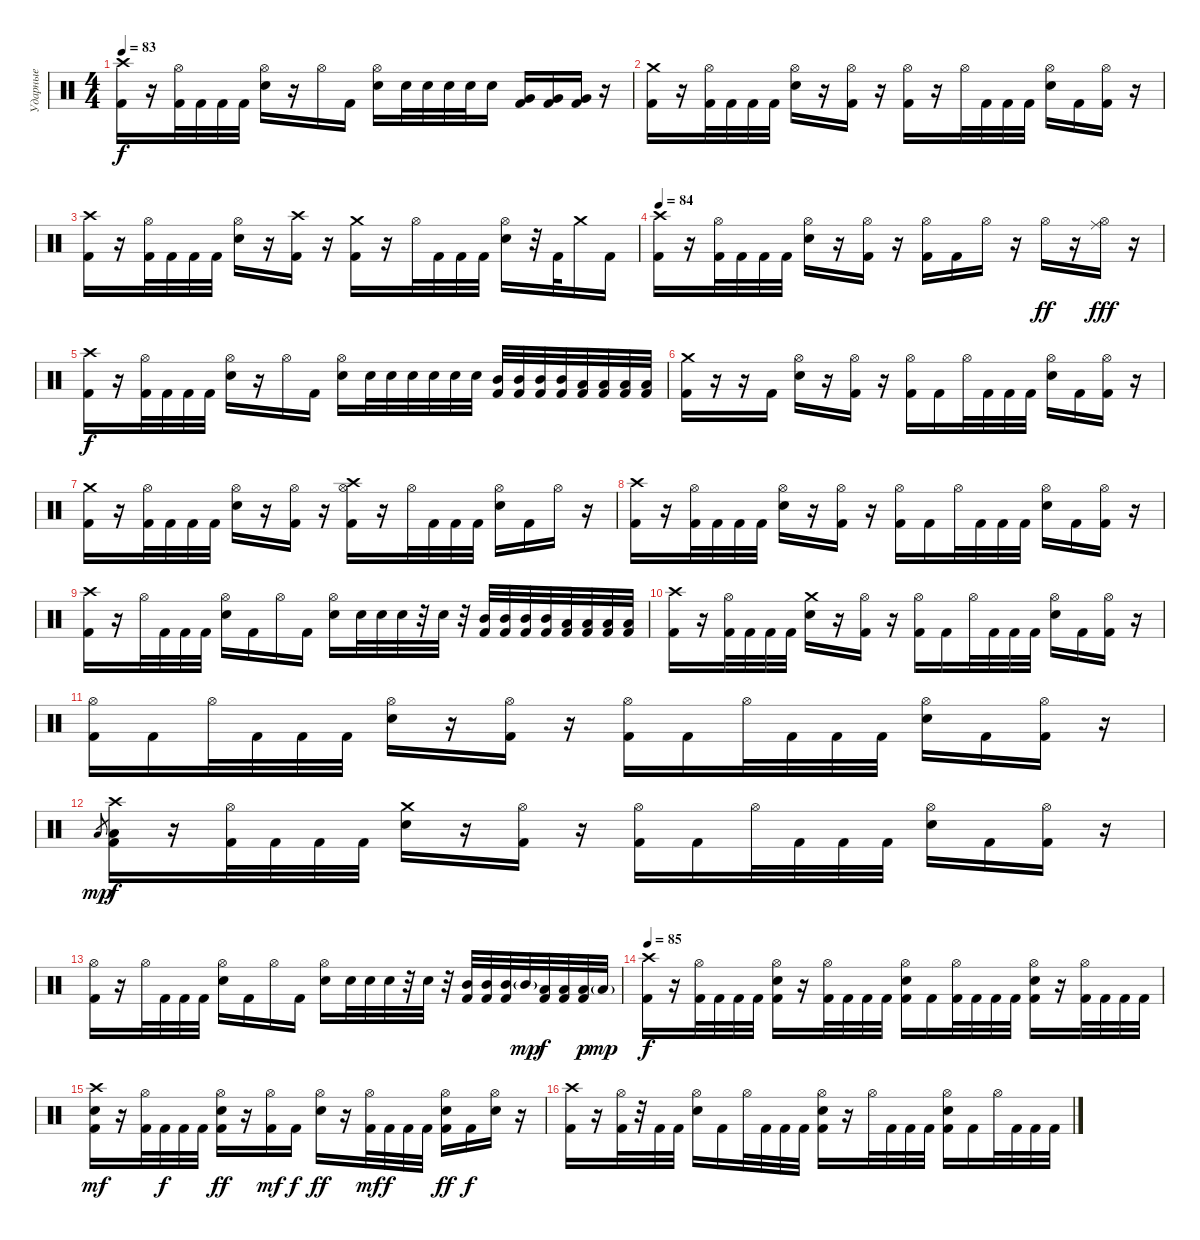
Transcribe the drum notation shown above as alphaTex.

\track ("Ударные" "Ударные") {instrument percussion}
\staff {score}
\articulation defaults
\ts (4 4)
\tempo 83
\clef neutral
\ks c
("Crash high (hit)" "Kick (hit) 2").16{dy f} r.16 ("Hi-Hat (open)" "Kick (hit) 2").32 "Kick (hit) 2".32 "Kick (hit) 2".32 "Kick (hit) 2".32 ("Hi-Hat (open)" "Electric Snare (hit)").16 r.16 "Hi-Hat (open)".16 "Kick (hit) 2".16 ("Hi-Hat (open)" "Electric Snare (hit)").16 "Electric Snare (hit)".32 "Electric Snare (hit)".32 "Electric Snare (hit)".32 "Electric Snare (hit)".32 "Electric Snare (hit)".16 ("Very Low Tom (hit)" "Kick (hit) 2").16 ("Very Low Tom (hit)" "Kick (hit) 2").16 ("Very Low Tom (hit)" "Kick (hit) 2").16 r.16 |
("Crash medium (hit)" "Kick (hit) 2").16 r.16 ("Hi-Hat (open)" "Kick (hit) 2").32 "Kick (hit) 2".32 "Kick (hit) 2".32 "Kick (hit) 2".32 ("Hi-Hat (open)" "Electric Snare (hit)").16 r.16 ("Hi-Hat (open)" "Kick (hit) 2").16 r.16 ("Hi-Hat (open)" "Kick (hit) 2").16 r.16 "Hi-Hat (open)".32 "Kick (hit) 2".32 "Kick (hit) 2".32 "Kick (hit) 2".32 ("Hi-Hat (open)" "Electric Snare (hit)").16 "Kick (hit) 2".16 ("Hi-Hat (open)" "Kick (hit) 2").16 r.16 |
("Crash high (hit)" "Kick (hit) 2").16 r.16 ("Hi-Hat (open)" "Kick (hit) 2").32 "Kick (hit) 2".32 "Kick (hit) 2".32 "Kick (hit) 2".32 ("Hi-Hat (open)" "Electric Snare (hit)").16 r.16 ("Crash high (hit)" "Kick (hit) 2").16 r.16 ("Crash medium (hit)" "Kick (hit) 2").16 r.16 "Hi-Hat (open)".32 "Kick (hit) 2".32 "Kick (hit) 2".32 "Kick (hit) 2".32 ("Hi-Hat (open)" "Electric Snare (hit)").16 r.32 "Kick (hit) 2".32 "Crash medium (hit)".16 "Kick (hit) 2".16 |
\tempo 84
("Crash high (hit)" "Kick (hit) 2").16 r.16 ("Hi-Hat (open)" "Kick (hit) 2").32 "Kick (hit) 2".32 "Kick (hit) 2".32 "Kick (hit) 2".32 ("Hi-Hat (open)" "Electric Snare (hit)").16 r.16 ("Hi-Hat (open)" "Kick (hit) 2").16 r.16 ("Hi-Hat (open)" "Kick (hit) 2").16 "Kick (hit) 2".16 "Hi-Hat (open)".16 r.16 "Hi-Hat (open)".16{dy ff} r.16 ("Hi-Hat (open)" "Ride (middle)").16{dy fff} r.16 |
("Crash high (hit)" "Kick (hit) 2").16{dy f} r.16 ("Hi-Hat (open)" "Kick (hit) 2").32 "Kick (hit) 2".32 "Kick (hit) 2".32 "Kick (hit) 2".32 ("Hi-Hat (open)" "Electric Snare (hit)").16 r.16 "Hi-Hat (open)".16 "Kick (hit) 2".16 ("Hi-Hat (open)" "Electric Snare (hit)").16 "Electric Snare (hit)".32 "Electric Snare (hit)".32 "Electric Snare (hit)".32 "Electric Snare (hit)".32 "Electric Snare (hit)".32 "Electric Snare (hit)".32 ("Mid Tom (hit)" "Kick (hit) 2").32 ("Mid Tom (hit)" "Kick (hit) 2").32 ("Mid Tom (hit)" "Kick (hit) 2").32 ("Mid Tom (hit)" "Kick (hit) 2").32 ("Low Tom (hit)" "Kick (hit) 2").32 ("Low Tom (hit)" "Kick (hit) 2").32 ("Low Tom (hit)" "Kick (hit) 2").32 ("Low Tom (hit)" "Kick (hit) 2").32 |
("Crash medium (hit)" "Kick (hit) 2").16 r.16 r.16 "Kick (hit) 2".16 ("Hi-Hat (open)" "Electric Snare (hit)").16 r.16 ("Hi-Hat (open)" "Kick (hit) 2").16 r.16 ("Hi-Hat (open)" "Kick (hit) 2").16 "Kick (hit) 2".16 "Hi-Hat (open)".32 "Kick (hit) 2".32 "Kick (hit) 2".32 "Kick (hit) 2".32 ("Hi-Hat (open)" "Electric Snare (hit)").16 "Kick (hit) 2".16 ("Hi-Hat (open)" "Kick (hit) 2").16 r.16 |
("Crash medium (hit)" "Kick (hit) 2").16 r.16 ("Hi-Hat (open)" "Kick (hit) 2").32 "Kick (hit) 2".32 "Kick (hit) 2".32 "Kick (hit) 2".32 ("Hi-Hat (open)" "Electric Snare (hit)").16 r.16 ("Hi-Hat (open)" "Kick (hit) 2").16 r.16 ("Hi-Hat (open)" "Crash high (hit)" "Kick (hit) 2").16 r.16 "Hi-Hat (open)".32 "Kick (hit) 2".32 "Kick (hit) 2".32 "Kick (hit) 2".32 ("Hi-Hat (open)" "Electric Snare (hit)").16 "Kick (hit) 2".16 "Hi-Hat (open)".16 r.16 |
("Crash high (hit)" "Kick (hit) 2").16 r.16 ("Hi-Hat (open)" "Kick (hit) 2").32 "Kick (hit) 2".32 "Kick (hit) 2".32 "Kick (hit) 2".32 ("Hi-Hat (open)" "Electric Snare (hit)").16 r.16 ("Hi-Hat (open)" "Kick (hit) 2").16 r.16 ("Hi-Hat (open)" "Kick (hit) 2").16 "Kick (hit) 2".16 "Hi-Hat (open)".32 "Kick (hit) 2".32 "Kick (hit) 2".32 "Kick (hit) 2".32 ("Hi-Hat (open)" "Electric Snare (hit)").16 "Kick (hit) 2".16 ("Hi-Hat (open)" "Kick (hit) 2").16 r.16 |
("Crash high (hit)" "Kick (hit) 2").16 r.16 "Hi-Hat (open)".32 "Kick (hit) 2".32 "Kick (hit) 2".32 "Kick (hit) 2".32 ("Hi-Hat (open)" "Electric Snare (hit)").16 "Kick (hit) 2".16 "Hi-Hat (open)".16 "Kick (hit) 2".16 ("Hi-Hat (open)" "Electric Snare (hit)").16 "Electric Snare (hit)".32 "Electric Snare (hit)".32 "Electric Snare (hit)".32 r.32 "Electric Snare (hit)".32 r.32 ("Mid Tom (hit)" "Kick (hit) 2").32 ("Mid Tom (hit)" "Kick (hit) 2").32 ("Mid Tom (hit)" "Kick (hit) 2").32 ("Mid Tom (hit)" "Kick (hit) 2").32 ("Low Tom (hit)" "Kick (hit) 2").32 ("Low Tom (hit)" "Kick (hit) 2").32 ("Low Tom (hit)" "Kick (hit) 2").32 ("Low Tom (hit)" "Kick (hit) 2").32 |
("Crash high (hit)" "Kick (hit) 2").16 r.16 ("Hi-Hat (open)" "Kick (hit) 2").32 "Kick (hit) 2".32 "Kick (hit) 2".32 "Kick (hit) 2".32 ("Crash medium (hit)" "Electric Snare (hit)").16 r.16 ("Hi-Hat (open)" "Kick (hit) 2").16 r.16 ("Hi-Hat (open)" "Kick (hit) 2").16 "Kick (hit) 2".16 "Hi-Hat (open)".32 "Kick (hit) 2".32 "Kick (hit) 2".32 "Kick (hit) 2".32 ("Hi-Hat (open)" "Electric Snare (hit)").16 "Kick (hit) 2".16 ("Hi-Hat (open)" "Kick (hit) 2").16 r.16 |
("Hi-Hat (open)" "Kick (hit) 2").16 "Kick (hit) 2".16 "Hi-Hat (open)".32 "Kick (hit) 2".32 "Kick (hit) 2".32 "Kick (hit) 2".32 ("Hi-Hat (open)" "Electric Snare (hit)").16 r.16 ("Hi-Hat (open)" "Kick (hit) 2").16 r.16 ("Hi-Hat (open)" "Kick (hit) 2").16 "Kick (hit) 2".16 "Hi-Hat (open)".32 "Kick (hit) 2".32 "Kick (hit) 2".32 "Kick (hit) 2".32 ("Hi-Hat (open)" "Electric Snare (hit)").16 "Kick (hit) 2".16 ("Hi-Hat (open)" "Kick (hit) 2").16 r.16 |
"Low Floor Tom (hit)".8{gr dy mp} ("Crash high (hit)" "Low Floor Tom (hit)" "Kick (hit) 2").16{dy f} r.16 ("Hi-Hat (open)" "Kick (hit) 2").32 "Kick (hit) 2".32 "Kick (hit) 2".32 "Kick (hit) 2".32 ("Crash medium (hit)" "Electric Snare (hit)").16 r.16 ("Hi-Hat (open)" "Kick (hit) 2").16 r.16 ("Hi-Hat (open)" "Kick (hit) 2").16 "Kick (hit) 2".16 "Hi-Hat (open)".32 "Kick (hit) 2".32 "Kick (hit) 2".32 "Kick (hit) 2".32 ("Hi-Hat (open)" "Electric Snare (hit)").16 "Kick (hit) 2".16 ("Hi-Hat (open)" "Kick (hit) 2").16 r.16 |
("Hi-Hat (open)" "Kick (hit) 2").16 r.16 "Hi-Hat (open)".32 "Kick (hit) 2".32 "Kick (hit) 2".32 "Kick (hit) 2".32 ("Hi-Hat (open)" "Electric Snare (hit)").16 "Kick (hit) 2".16 "Hi-Hat (open)".16 "Kick (hit) 2".16 ("Hi-Hat (open)" "Electric Snare (hit)").16 "Electric Snare (hit)".32 "Electric Snare (hit)".32 "Electric Snare (hit)".32 r.32 "Electric Snare (hit)".32 r.32 ("Mid Tom (hit)" "Kick (hit) 2").32 ("Mid Tom (hit)" "Kick (hit) 2").32 ("Mid Tom (hit)" "Kick (hit) 2").32 "Mid Tom (hit)"{g}.32{dy mp} ("Low Tom (hit)" "Kick (hit) 2").32{dy f} ("Low Tom (hit)" "Kick (hit) 2").32 ("Low Tom (hit)" "Kick (hit) 2").32{dy p} "Low Tom (hit)"{g}.32{dy mp} |
\tempo 85
("Crash high (hit)" "Kick (hit) 2").16{dy f} r.16 ("Hi-Hat (open)" "Kick (hit) 2").32 "Kick (hit) 2".32 "Kick (hit) 2".32 "Kick (hit) 2".32 ("Hi-Hat (open)" "Electric Snare (hit)" "Kick (hit) 2").16 r.16 ("Hi-Hat (open)" "Kick (hit) 2").32 "Kick (hit) 2".32 "Kick (hit) 2".32 "Kick (hit) 2".32 ("Hi-Hat (open)" "Electric Snare (hit)" "Kick (hit) 2").16 "Kick (hit) 2".16 ("Hi-Hat (open)" "Kick (hit) 2").32 "Kick (hit) 2".32 "Kick (hit) 2".32 "Kick (hit) 2".32 ("Hi-Hat (open)" "Electric Snare (hit)" "Kick (hit) 2").16 r.16 ("Hi-Hat (open)" "Kick (hit) 2").32 "Kick (hit) 2".32 "Kick (hit) 2".32 "Kick (hit) 2".32 |
("Crash high (hit)" "Electric Snare (hit)" "Kick (hit) 2").16{dy mf} r.16 ("Hi-Hat (open)" "Kick (hit) 2").32 "Kick (hit) 2".32{dy f} "Kick (hit) 2".32 "Kick (hit) 2".32 ("Hi-Hat (open)" "Electric Snare (hit)" "Kick (hit) 2").16{dy ff} r.16 ("Hi-Hat (open)" "Kick (hit) 2").16{dy mf} "Kick (hit) 2".16{dy f} ("Hi-Hat (open)" "Electric Snare (hit)").16{dy ff} r.16 ("Hi-Hat (open)" "Kick (hit) 2").32{dy mf} "Kick (hit) 2".32{dy f} "Kick (hit) 2".32 "Kick (hit) 2".32 ("Hi-Hat (open)" "Electric Snare (hit)" "Kick (hit) 2").16{dy ff} "Kick (hit) 2".16{dy f} ("Hi-Hat (open)" "Electric Snare (hit)").16 r.16 |
("Crash high (hit)" "Kick (hit) 2").16 r.16 ("Hi-Hat (open)" "Kick (hit) 2").32 r.32 "Kick (hit) 2".32 "Kick (hit) 2".32 ("Hi-Hat (open)" "Electric Snare (hit)").16 "Kick (hit) 2".16 "Hi-Hat (open)".32 "Kick (hit) 2".32 "Kick (hit) 2".32 "Kick (hit) 2".32 ("Hi-Hat (open)" "Electric Snare (hit)" "Kick (hit) 2").16 r.16 "Hi-Hat (open)".32 "Kick (hit) 2".32 "Kick (hit) 2".32 "Kick (hit) 2".32 ("Hi-Hat (open)" "Electric Snare (hit)" "Kick (hit) 2").16 "Kick (hit) 2".16 "Hi-Hat (open)".32 "Kick (hit) 2".32 "Kick (hit) 2".32 "Kick (hit) 2".32
